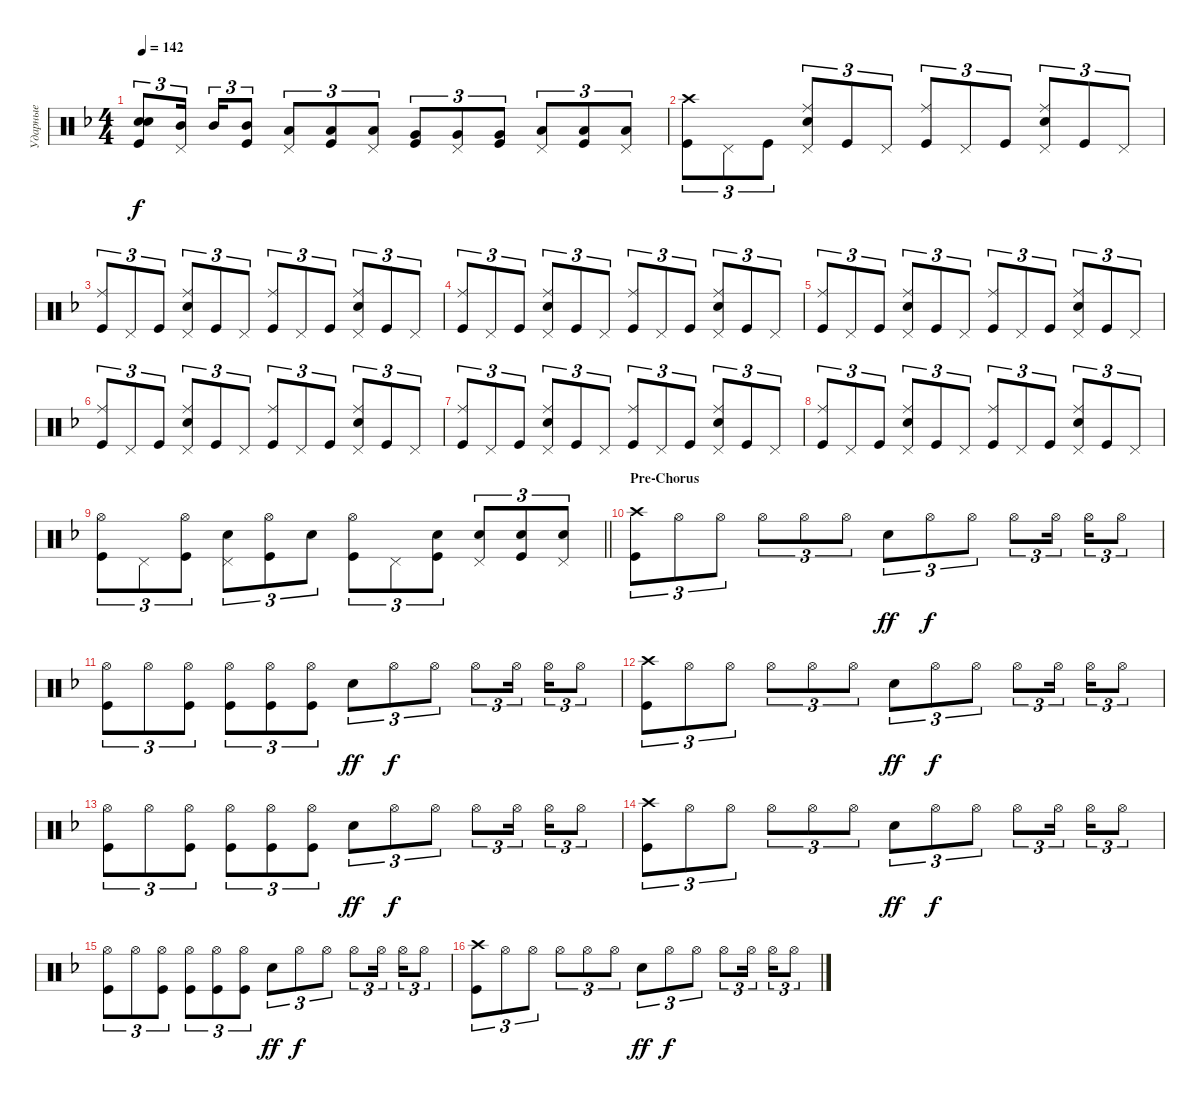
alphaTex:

\track ("Ударные" "Ударные") {instrument percussion}
\staff {score}
\articulation defaults
\ts (4 4)
\tempo 142
\clef neutral
\ks dminor
("Snare (hit) 2" "Snare (hit) 2" "Kick (hit)").8{tu (3 2) bd 240 dy f} ("Pedal Hi-Hat (hit)" "Mid Tom (hit)").16{tu (3 2) beam splitsecondary} "Mid Tom (hit)".16{tu (3 2)} ("Mid Tom (hit)" "Kick (hit)").8{tu (3 2)} ("Low Tom (hit)" "Pedal Hi-Hat (hit)").8{tu (3 2)} ("Kick (hit)" "Low Tom (hit)").8{tu (3 2)} ("Pedal Hi-Hat (hit)" "Low Tom (hit)").8{tu (3 2)} ("Very Low Tom (hit)" "Kick (hit)").8{tu (3 2)} ("Pedal Hi-Hat (hit)" "Very Low Tom (hit)").8{tu (3 2)} ("Kick (hit)" "Very Low Tom (hit)").8{tu (3 2)} ("Low Floor Tom (hit)" "Pedal Hi-Hat (hit)").8{tu (3 2)} ("Kick (hit)" "Low Floor Tom (hit)").8{tu (3 2)} ("Pedal Hi-Hat (hit)" "Low Floor Tom (hit)").8{tu (3 2)} |
("Kick (hit)" "Crash high (hit)").8{tu (3 2)} "Pedal Hi-Hat (hit)".8{tu (3 2)} "Kick (hit)".8{tu (3 2)} ("Snare (hit) 2" "Ride (middle)" "Pedal Hi-Hat (hit)").8{tu (3 2)} "Kick (hit)".8{tu (3 2)} "Pedal Hi-Hat (hit)".8{tu (3 2)} ("Kick (hit)" "Ride (middle)").8{tu (3 2)} "Pedal Hi-Hat (hit)".8{tu (3 2)} "Kick (hit)".8{tu (3 2)} ("Snare (hit) 2" "Ride (middle)" "Pedal Hi-Hat (hit)").8{tu (3 2)} "Kick (hit)".8{tu (3 2)} "Pedal Hi-Hat (hit)".8{tu (3 2)} |
("Kick (hit)" "Ride (middle)").8{tu (3 2)} "Pedal Hi-Hat (hit)".8{tu (3 2)} "Kick (hit)".8{tu (3 2)} ("Snare (hit) 2" "Ride (middle)" "Pedal Hi-Hat (hit)").8{tu (3 2)} "Kick (hit)".8{tu (3 2)} "Pedal Hi-Hat (hit)".8{tu (3 2)} ("Kick (hit)" "Ride (middle)").8{tu (3 2)} "Pedal Hi-Hat (hit)".8{tu (3 2)} "Kick (hit)".8{tu (3 2)} ("Snare (hit) 2" "Ride (middle)" "Pedal Hi-Hat (hit)").8{tu (3 2)} "Kick (hit)".8{tu (3 2)} "Pedal Hi-Hat (hit)".8{tu (3 2)} |
("Kick (hit)" "Ride (middle)").8{tu (3 2)} "Pedal Hi-Hat (hit)".8{tu (3 2)} "Kick (hit)".8{tu (3 2)} ("Snare (hit) 2" "Ride (middle)" "Pedal Hi-Hat (hit)").8{tu (3 2)} "Kick (hit)".8{tu (3 2)} "Pedal Hi-Hat (hit)".8{tu (3 2)} ("Kick (hit)" "Ride (middle)").8{tu (3 2)} "Pedal Hi-Hat (hit)".8{tu (3 2)} "Kick (hit)".8{tu (3 2)} ("Snare (hit) 2" "Ride (middle)" "Pedal Hi-Hat (hit)").8{tu (3 2)} "Kick (hit)".8{tu (3 2)} "Pedal Hi-Hat (hit)".8{tu (3 2)} |
("Kick (hit)" "Ride (middle)").8{tu (3 2)} "Pedal Hi-Hat (hit)".8{tu (3 2)} "Kick (hit)".8{tu (3 2)} ("Snare (hit) 2" "Ride (middle)" "Pedal Hi-Hat (hit)").8{tu (3 2)} "Kick (hit)".8{tu (3 2)} "Pedal Hi-Hat (hit)".8{tu (3 2)} ("Kick (hit)" "Ride (middle)").8{tu (3 2)} "Pedal Hi-Hat (hit)".8{tu (3 2)} "Kick (hit)".8{tu (3 2)} ("Snare (hit) 2" "Ride (middle)" "Pedal Hi-Hat (hit)").8{tu (3 2)} "Kick (hit)".8{tu (3 2)} "Pedal Hi-Hat (hit)".8{tu (3 2)} |
("Kick (hit)" "Ride (middle)").8{tu (3 2)} "Pedal Hi-Hat (hit)".8{tu (3 2)} "Kick (hit)".8{tu (3 2)} ("Snare (hit) 2" "Ride (middle)" "Pedal Hi-Hat (hit)").8{tu (3 2)} "Kick (hit)".8{tu (3 2)} "Pedal Hi-Hat (hit)".8{tu (3 2)} ("Kick (hit)" "Ride (middle)").8{tu (3 2)} "Pedal Hi-Hat (hit)".8{tu (3 2)} "Kick (hit)".8{tu (3 2)} ("Snare (hit) 2" "Ride (middle)" "Pedal Hi-Hat (hit)").8{tu (3 2)} "Kick (hit)".8{tu (3 2)} "Pedal Hi-Hat (hit)".8{tu (3 2)} |
("Kick (hit)" "Ride (middle)").8{tu (3 2)} "Pedal Hi-Hat (hit)".8{tu (3 2)} "Kick (hit)".8{tu (3 2)} ("Snare (hit) 2" "Ride (middle)" "Pedal Hi-Hat (hit)").8{tu (3 2)} "Kick (hit)".8{tu (3 2)} "Pedal Hi-Hat (hit)".8{tu (3 2)} ("Kick (hit)" "Ride (middle)").8{tu (3 2)} "Pedal Hi-Hat (hit)".8{tu (3 2)} "Kick (hit)".8{tu (3 2)} ("Snare (hit) 2" "Ride (middle)" "Pedal Hi-Hat (hit)").8{tu (3 2)} "Kick (hit)".8{tu (3 2)} "Pedal Hi-Hat (hit)".8{tu (3 2)} |
("Kick (hit)" "Ride (middle)").8{tu (3 2)} "Pedal Hi-Hat (hit)".8{tu (3 2)} "Kick (hit)".8{tu (3 2)} ("Snare (hit) 2" "Ride (middle)" "Pedal Hi-Hat (hit)").8{tu (3 2)} "Kick (hit)".8{tu (3 2)} "Pedal Hi-Hat (hit)".8{tu (3 2)} ("Kick (hit)" "Ride (middle)").8{tu (3 2)} "Pedal Hi-Hat (hit)".8{tu (3 2)} "Kick (hit)".8{tu (3 2)} ("Snare (hit) 2" "Ride (middle)" "Pedal Hi-Hat (hit)").8{tu (3 2)} "Kick (hit)".8{tu (3 2)} "Pedal Hi-Hat (hit)".8{tu (3 2)} |
\barLineRight lightlight
("Kick (hit)" "Hi-Hat (open)").8{tu (3 2)} "Pedal Hi-Hat (hit)".8{tu (3 2)} ("Kick (hit)" "Hi-Hat (open)").8{tu (3 2)} ("Snare (hit) 2" "Pedal Hi-Hat (hit)").8{tu (3 2)} ("Kick (hit)" "Hi-Hat (open)").8{tu (3 2)} "Snare (hit) 2".8{tu (3 2)} ("Kick (hit)" "Hi-Hat (open)").8{tu (3 2)} "Pedal Hi-Hat (hit)".8{tu (3 2)} ("Snare (hit) 2" "Kick (hit)").8{tu (3 2)} ("Snare (hit) 2" "Pedal Hi-Hat (hit)").8{tu (3 2)} ("Snare (hit) 2" "Kick (hit)").8{tu (3 2)} ("Snare (hit) 2" "Pedal Hi-Hat (hit)").8{tu (3 2)} |
\section ("" "Pre-Chorus")
("Kick (hit)" "Crash high (hit)").8{tu (3 2)} "Hi-Hat (open)".8{tu (3 2)} "Hi-Hat (open)".8{tu (3 2)} "Hi-Hat (open)".8{tu (3 2)} "Hi-Hat (open)".8{tu (3 2)} "Hi-Hat (open)".8{tu (3 2)} "Snare (hit) 2".8{tu (3 2) dy ff} "Hi-Hat (open)".8{tu (3 2) dy f} "Hi-Hat (open)".8{tu (3 2)} "Hi-Hat (open)".8{tu (3 2)} "Hi-Hat (open)".16{tu (3 2) beam splitsecondary} "Hi-Hat (open)".16{tu (3 2)} "Hi-Hat (open)".8{tu (3 2)} |
("Hi-Hat (open)" "Kick (hit)").8{tu (3 2)} "Hi-Hat (open)".8{tu (3 2)} ("Hi-Hat (open)" "Kick (hit)").8{tu (3 2)} ("Hi-Hat (open)" "Kick (hit)").8{tu (3 2)} ("Hi-Hat (open)" "Kick (hit)").8{tu (3 2)} ("Hi-Hat (open)" "Kick (hit)").8{tu (3 2)} "Snare (hit) 2".8{tu (3 2) dy ff} "Hi-Hat (open)".8{tu (3 2) dy f} "Hi-Hat (open)".8{tu (3 2)} "Hi-Hat (open)".8{tu (3 2)} "Hi-Hat (open)".16{tu (3 2) beam splitsecondary} "Hi-Hat (open)".16{tu (3 2)} "Hi-Hat (open)".8{tu (3 2)} |
("Kick (hit)" "Crash high (hit)").8{tu (3 2)} "Hi-Hat (open)".8{tu (3 2)} "Hi-Hat (open)".8{tu (3 2)} "Hi-Hat (open)".8{tu (3 2)} "Hi-Hat (open)".8{tu (3 2)} "Hi-Hat (open)".8{tu (3 2)} "Snare (hit) 2".8{tu (3 2) dy ff} "Hi-Hat (open)".8{tu (3 2) dy f} "Hi-Hat (open)".8{tu (3 2)} "Hi-Hat (open)".8{tu (3 2)} "Hi-Hat (open)".16{tu (3 2) beam splitsecondary} "Hi-Hat (open)".16{tu (3 2)} "Hi-Hat (open)".8{tu (3 2)} |
("Hi-Hat (open)" "Kick (hit)").8{tu (3 2)} "Hi-Hat (open)".8{tu (3 2)} ("Hi-Hat (open)" "Kick (hit)").8{tu (3 2)} ("Hi-Hat (open)" "Kick (hit)").8{tu (3 2)} ("Hi-Hat (open)" "Kick (hit)").8{tu (3 2)} ("Hi-Hat (open)" "Kick (hit)").8{tu (3 2)} "Snare (hit) 2".8{tu (3 2) dy ff} "Hi-Hat (open)".8{tu (3 2) dy f} "Hi-Hat (open)".8{tu (3 2)} "Hi-Hat (open)".8{tu (3 2)} "Hi-Hat (open)".16{tu (3 2) beam splitsecondary} "Hi-Hat (open)".16{tu (3 2)} "Hi-Hat (open)".8{tu (3 2)} |
("Kick (hit)" "Crash high (hit)").8{tu (3 2)} "Hi-Hat (open)".8{tu (3 2)} "Hi-Hat (open)".8{tu (3 2)} "Hi-Hat (open)".8{tu (3 2)} "Hi-Hat (open)".8{tu (3 2)} "Hi-Hat (open)".8{tu (3 2)} "Snare (hit) 2".8{tu (3 2) dy ff} "Hi-Hat (open)".8{tu (3 2) dy f} "Hi-Hat (open)".8{tu (3 2)} "Hi-Hat (open)".8{tu (3 2)} "Hi-Hat (open)".16{tu (3 2) beam splitsecondary} "Hi-Hat (open)".16{tu (3 2)} "Hi-Hat (open)".8{tu (3 2)} |
("Hi-Hat (open)" "Kick (hit)").8{tu (3 2)} "Hi-Hat (open)".8{tu (3 2)} ("Hi-Hat (open)" "Kick (hit)").8{tu (3 2)} ("Hi-Hat (open)" "Kick (hit)").8{tu (3 2)} ("Hi-Hat (open)" "Kick (hit)").8{tu (3 2)} ("Hi-Hat (open)" "Kick (hit)").8{tu (3 2)} "Snare (hit) 2".8{tu (3 2) dy ff} "Hi-Hat (open)".8{tu (3 2) dy f} "Hi-Hat (open)".8{tu (3 2)} "Hi-Hat (open)".8{tu (3 2)} "Hi-Hat (open)".16{tu (3 2) beam splitsecondary} "Hi-Hat (open)".16{tu (3 2)} "Hi-Hat (open)".8{tu (3 2)} |
("Kick (hit)" "Crash high (hit)").8{tu (3 2)} "Hi-Hat (open)".8{tu (3 2)} "Hi-Hat (open)".8{tu (3 2)} "Hi-Hat (open)".8{tu (3 2)} "Hi-Hat (open)".8{tu (3 2)} "Hi-Hat (open)".8{tu (3 2)} "Snare (hit) 2".8{tu (3 2) dy ff} "Hi-Hat (open)".8{tu (3 2) dy f} "Hi-Hat (open)".8{tu (3 2)} "Hi-Hat (open)".8{tu (3 2)} "Hi-Hat (open)".16{tu (3 2) beam splitsecondary} "Hi-Hat (open)".16{tu (3 2)} "Hi-Hat (open)".8{tu (3 2)}
